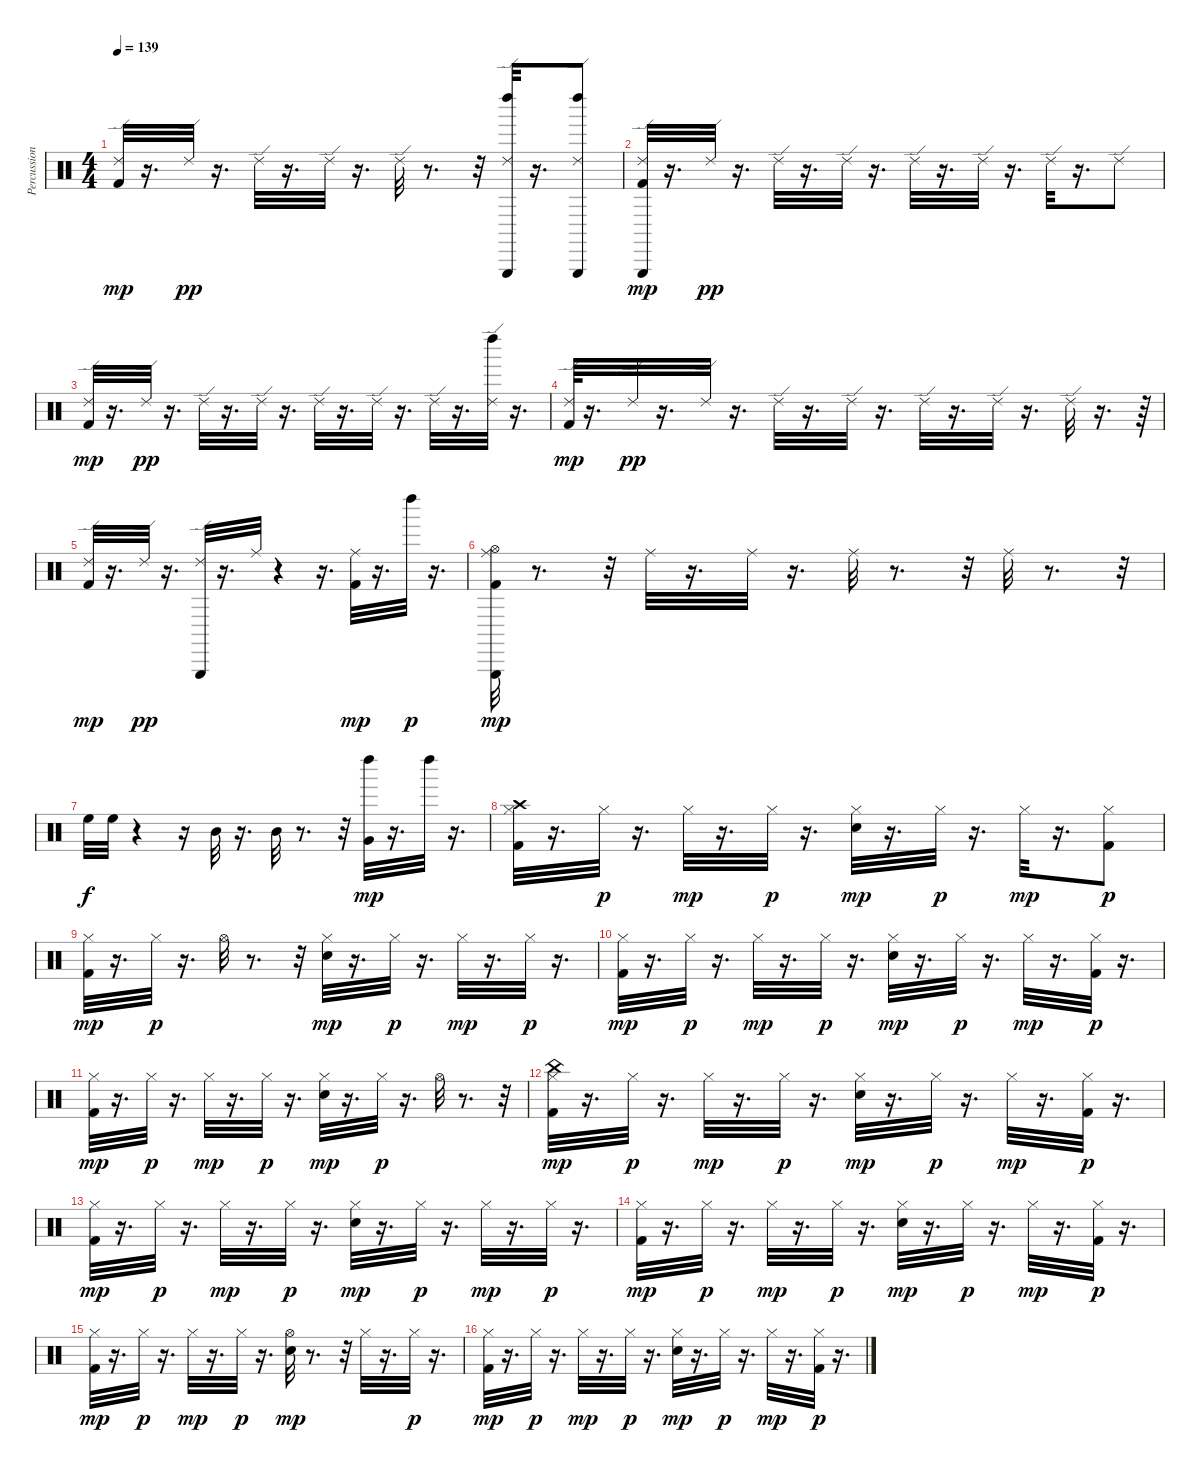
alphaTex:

\track ("Percussion" "Percussion") {instrument percussion}
\staff {score}
\articulation defaults
\ts (4 4)
\tempo 139
\clef neutral
\ks c
("Ride (edge) 2" "Kick (hit) 2").32{dy mp} r.16{d} "Ride (edge) 2".32{dy pp} r.16{d} "Ride (edge) 2".32 r.16{d} "Ride (edge) 2".32 r.16{d} "Ride (edge) 2".32 r.8{d} r.32 ("Left Maraca (hit)" "Triangle (hit)" "Ride (edge) 2").32 r.16{d} ("Left Maraca (hit)" "Triangle (hit)" "Ride (edge) 2").8 |
("Triangle (hit)" "Ride (edge) 2" "Kick (hit) 2").32{dy mp} r.16{d} "Ride (edge) 2".32{dy pp} r.16{d} "Ride (edge) 2".32 r.16{d} "Ride (edge) 2".32 r.16{d} "Ride (edge) 2".32 r.16{d} "Ride (edge) 2".32 r.16{d} "Ride (edge) 2".32 r.16{d} "Ride (edge) 2".8 |
("Ride (edge) 2" "Kick (hit) 2").32{dy mp} r.16{d} "Ride (edge) 2".32{dy pp} r.16{d} "Ride (edge) 2".32 r.16{d} "Ride (edge) 2".32 r.16{d} "Ride (edge) 2".32 r.16{d} "Ride (edge) 2".32 r.16{d} "Ride (edge) 2".32 r.16{d} ("Left Maraca (hit)" "Ride (edge) 2").32 r.16{d} |
("Ride (edge) 2" "Kick (hit) 2").64{dy mp} r.16{d} "Ride (edge) 2".32{dy pp} r.16{d} "Ride (edge) 2".32 r.16{d} "Ride (edge) 2".32 r.16{d} "Ride (edge) 2".32 r.16{d} "Ride (edge) 2".32 r.16{d} "Ride (edge) 2".32 r.16{d} "Ride (edge) 2".32 r.16{d} r.64 |
("Ride (edge) 2" "Kick (hit) 2").32{dy mp} r.16{d} "Ride (edge) 2".32{dy pp} r.16{d} ("Triangle (hit)" "Ride (edge) 2").32 r.16{d} "Ride (middle)".32 r.4 r.16{d} ("Ride (middle)" "Kick (hit) 2").32{dy mp} r.16{d} "Left Maraca (hit)".32{dy p} r.16{d} |
("Triangle (hit)" "Ride (middle)" "Hi-Hat (open)" "Kick (hit) 2").32{dy mp} r.8{d} r.32 "Ride (middle)".32 r.16{d} "Ride (middle)".32 r.16{d} "Ride (middle)".32 r.8{d} r.32 "Ride (middle)".32 r.8{d} r.32 |
"High Floor Tom (hit)".32{dy f} "High Floor Tom (hit)".32 r.4 r.16 "Mid Tom (hit)".32 r.16{d} "Mid Tom (hit)".32 r.8{d} r.32 ("Left Maraca (hit)" "Very Low Tom (hit)").32{dy mp} r.16{d} "Left Maraca (hit)".32 r.16{d} |
("Crash high (hit)" "Hi-Hat (closed)" "Kick (hit) 2").32 r.16{d} "Hi-Hat (closed)".32{dy p} r.16{d} "Hi-Hat (closed)".32{dy mp} r.16{d} "Hi-Hat (closed)".32{dy p} r.16{d} ("Hi-Hat (closed)" "Snare (hit) 2").32{dy mp} r.16{d} "Hi-Hat (closed)".32{dy p} r.16{d} "Hi-Hat (closed)".32{dy mp} r.16{d} ("Hi-Hat (closed)" "Kick (hit) 2").8{dy p} |
("Hi-Hat (closed)" "Kick (hit) 2").32{dy mp} r.16{d} "Hi-Hat (closed)".32{dy p} r.16{d} "Hi-Hat (open)".32 r.8{d} r.32 ("Hi-Hat (closed)" "Snare (hit) 2").32{dy mp} r.16{d} "Hi-Hat (closed)".32{dy p} r.16{d} "Hi-Hat (closed)".32{dy mp} r.16{d} "Hi-Hat (closed)".32{dy p} r.16{d} |
("Hi-Hat (closed)" "Kick (hit) 2").32{dy mp} r.16{d} "Hi-Hat (closed)".32{dy p} r.16{d} "Hi-Hat (closed)".32{dy mp} r.16{d} "Hi-Hat (closed)".32{dy p} r.16{d} ("Hi-Hat (closed)" "Snare (hit) 2").32{dy mp} r.16{d} "Hi-Hat (closed)".32{dy p} r.16{d} "Hi-Hat (closed)".32{dy mp} r.16{d} ("Hi-Hat (closed)" "Kick (hit) 2").32{dy p} r.16{d} |
("Hi-Hat (closed)" "Kick (hit) 2").32{dy mp} r.16{d} "Hi-Hat (closed)".32{dy p} r.16{d} "Hi-Hat (closed)".32{dy mp} r.16{d} "Hi-Hat (closed)".32{dy p} r.16{d} ("Hi-Hat (closed)" "Snare (hit) 2").32{dy mp} r.16{d} "Hi-Hat (closed)".32{dy p} r.16{d} "Hi-Hat (open)".32 r.8{d} r.32 |
("China (hit)" "Hi-Hat (closed)" "Kick (hit) 2").32{dy mp} r.16{d} "Hi-Hat (closed)".32{dy p} r.16{d} "Hi-Hat (closed)".32{dy mp} r.16{d} "Hi-Hat (closed)".32{dy p} r.16{d} ("Hi-Hat (closed)" "Snare (hit) 2").32{dy mp} r.16{d} "Hi-Hat (closed)".32{dy p} r.16{d} "Hi-Hat (closed)".32{dy mp} r.16{d} ("Hi-Hat (closed)" "Kick (hit) 2").32{dy p} r.16{d} |
("Hi-Hat (closed)" "Kick (hit) 2").32{dy mp} r.16{d} "Hi-Hat (closed)".32{dy p} r.16{d} "Hi-Hat (closed)".32{dy mp} r.16{d} "Hi-Hat (closed)".32{dy p} r.16{d} ("Hi-Hat (closed)" "Snare (hit) 2").32{dy mp} r.16{d} "Hi-Hat (closed)".32{dy p} r.16{d} "Hi-Hat (closed)".32{dy mp} r.16{d} "Hi-Hat (closed)".32{dy p} r.16{d} |
("Hi-Hat (closed)" "Kick (hit) 2").32{dy mp} r.16{d} "Hi-Hat (closed)".32{dy p} r.16{d} "Hi-Hat (closed)".32{dy mp} r.16{d} "Hi-Hat (closed)".32{dy p} r.16{d} ("Hi-Hat (closed)" "Snare (hit) 2").32{dy mp} r.16{d} "Hi-Hat (closed)".32{dy p} r.16{d} "Hi-Hat (closed)".32{dy mp} r.16{d} ("Hi-Hat (closed)" "Kick (hit) 2").32{dy p} r.16{d} |
("Hi-Hat (closed)" "Kick (hit) 2").32{dy mp} r.16{d} "Hi-Hat (closed)".32{dy p} r.16{d} "Hi-Hat (closed)".32{dy mp} r.16{d} "Hi-Hat (closed)".32{dy p} r.16{d} ("Hi-Hat (open)" "Snare (hit) 2").32{dy mp} r.8{d} r.32 "Hi-Hat (closed)".32 r.16{d} "Hi-Hat (closed)".32{dy p} r.16{d} |
("Hi-Hat (closed)" "Kick (hit) 2").32{dy mp} r.16{d} "Hi-Hat (closed)".32{dy p} r.16{d} "Hi-Hat (closed)".32{dy mp} r.16{d} "Hi-Hat (closed)".32{dy p} r.16{d} ("Hi-Hat (closed)" "Snare (hit) 2").32{dy mp} r.16{d} "Hi-Hat (closed)".32{dy p} r.16{d} "Hi-Hat (closed)".32{dy mp} r.16{d} ("Hi-Hat (closed)" "Kick (hit) 2").32{dy p} r.16{d}
